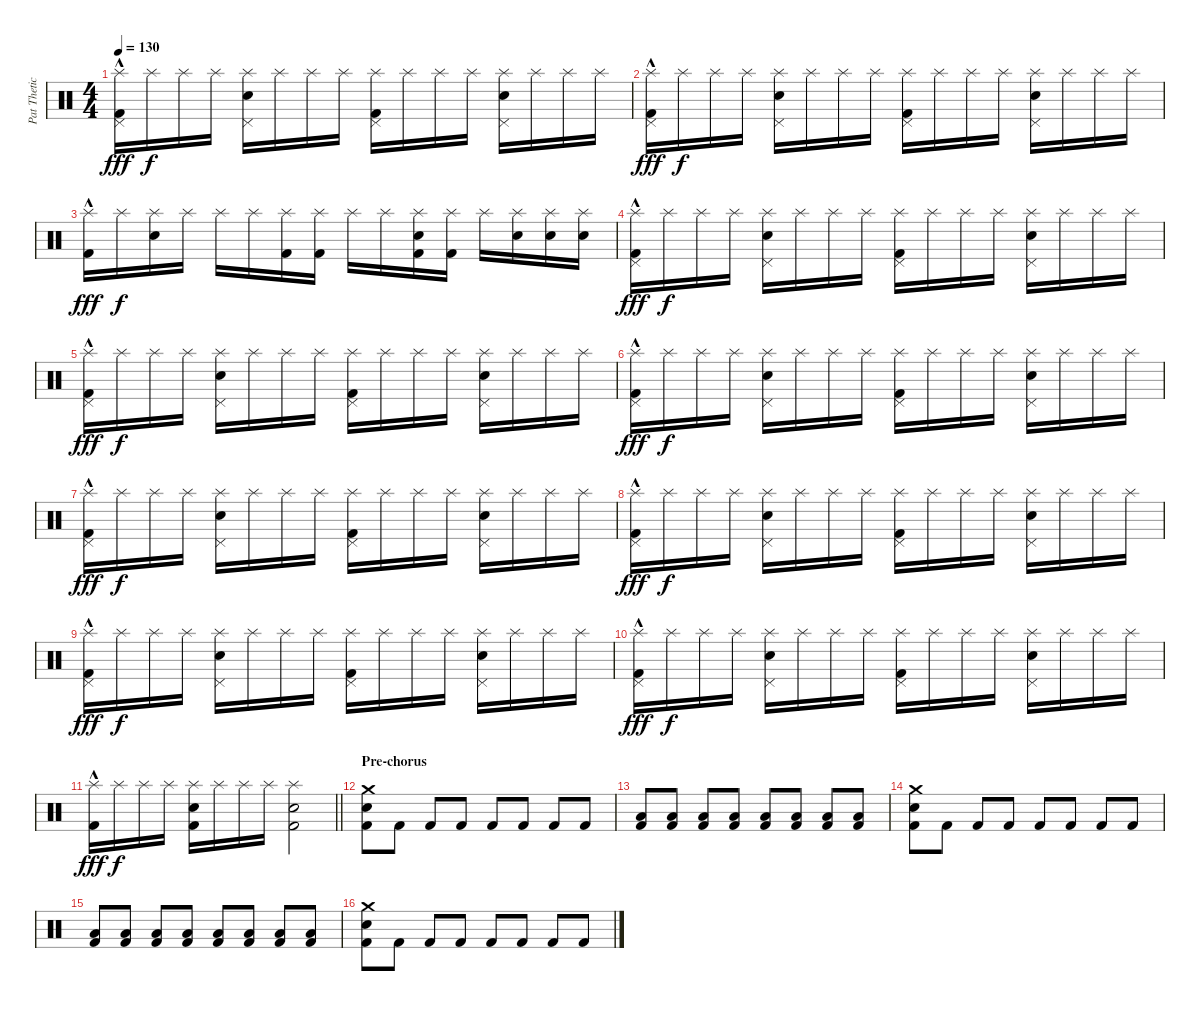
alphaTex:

\track ("Pat Thetic Drums" "Pat Thetic") {instrument percussion}
\staff {score}
\articulation defaults
\ts (4 4)
\tempo 130
\clef neutral
\ks c
("Splash (hit)" "Pedal Hi-Hat (hit)" "Kick (hit) 2"{hac}).16{dy fff} "Splash (hit)".16{dy f} "Splash (hit)".16 "Splash (hit)".16 ("Splash (hit)" "Pedal Hi-Hat (hit)" "Snare (hit) 2").16 "Splash (hit)".16 "Splash (hit)".16 "Splash (hit)".16 ("Splash (hit)" "Pedal Hi-Hat (hit)" "Kick (hit) 2").16 "Splash (hit)".16 "Splash (hit)".16 "Splash (hit)".16 ("Splash (hit)" "Pedal Hi-Hat (hit)" "Snare (hit) 2").16 "Splash (hit)".16 "Splash (hit)".16 "Splash (hit)".16 |
("Splash (hit)" "Pedal Hi-Hat (hit)" "Kick (hit) 2"{hac}).16{dy fff} "Splash (hit)".16{dy f} "Splash (hit)".16 "Splash (hit)".16 ("Splash (hit)" "Pedal Hi-Hat (hit)" "Snare (hit) 2").16 "Splash (hit)".16 "Splash (hit)".16 "Splash (hit)".16 ("Splash (hit)" "Pedal Hi-Hat (hit)" "Kick (hit) 2").16 "Splash (hit)".16 "Splash (hit)".16 "Splash (hit)".16 ("Splash (hit)" "Pedal Hi-Hat (hit)" "Snare (hit) 2").16 "Splash (hit)".16 "Splash (hit)".16 "Splash (hit)".16 |
("Splash (hit)" "Kick (hit) 2"{hac}).16{dy fff} "Splash (hit)".16{dy f} ("Splash (hit)" "Snare (hit) 2").16 "Splash (hit)".16 "Splash (hit)".16 "Splash (hit)".16 ("Splash (hit)" "Kick (hit) 2").16 ("Splash (hit)" "Kick (hit) 2").16 "Splash (hit)".16 "Splash (hit)".16 ("Splash (hit)" "Kick (hit) 2" "Snare (hit) 2").16 ("Splash (hit)" "Kick (hit) 2").16 "Splash (hit)".16 ("Splash (hit)" "Snare (hit) 2").16 ("Splash (hit)" "Snare (hit) 2").16 ("Splash (hit)" "Snare (hit) 2").16 |
("Splash (hit)" "Pedal Hi-Hat (hit)" "Kick (hit) 2"{hac}).16{dy fff} "Splash (hit)".16{dy f} "Splash (hit)".16 "Splash (hit)".16 ("Splash (hit)" "Pedal Hi-Hat (hit)" "Snare (hit) 2").16 "Splash (hit)".16 "Splash (hit)".16 "Splash (hit)".16 ("Splash (hit)" "Pedal Hi-Hat (hit)" "Kick (hit) 2").16 "Splash (hit)".16 "Splash (hit)".16 "Splash (hit)".16 ("Splash (hit)" "Pedal Hi-Hat (hit)" "Snare (hit) 2").16 "Splash (hit)".16 "Splash (hit)".16 "Splash (hit)".16 |
("Splash (hit)" "Pedal Hi-Hat (hit)" "Kick (hit) 2"{hac}).16{dy fff} "Splash (hit)".16{dy f} "Splash (hit)".16 "Splash (hit)".16 ("Splash (hit)" "Pedal Hi-Hat (hit)" "Snare (hit) 2").16 "Splash (hit)".16 "Splash (hit)".16 "Splash (hit)".16 ("Splash (hit)" "Pedal Hi-Hat (hit)" "Kick (hit) 2").16 "Splash (hit)".16 "Splash (hit)".16 "Splash (hit)".16 ("Splash (hit)" "Pedal Hi-Hat (hit)" "Snare (hit) 2").16 "Splash (hit)".16 "Splash (hit)".16 "Splash (hit)".16 |
("Splash (hit)" "Pedal Hi-Hat (hit)" "Kick (hit) 2"{hac}).16{dy fff} "Splash (hit)".16{dy f} "Splash (hit)".16 "Splash (hit)".16 ("Splash (hit)" "Pedal Hi-Hat (hit)" "Snare (hit) 2").16 "Splash (hit)".16 "Splash (hit)".16 "Splash (hit)".16 ("Splash (hit)" "Pedal Hi-Hat (hit)" "Kick (hit) 2").16 "Splash (hit)".16 "Splash (hit)".16 "Splash (hit)".16 ("Splash (hit)" "Pedal Hi-Hat (hit)" "Snare (hit) 2").16 "Splash (hit)".16 "Splash (hit)".16 "Splash (hit)".16 |
("Splash (hit)" "Pedal Hi-Hat (hit)" "Kick (hit) 2"{hac}).16{dy fff} "Splash (hit)".16{dy f} "Splash (hit)".16 "Splash (hit)".16 ("Splash (hit)" "Pedal Hi-Hat (hit)" "Snare (hit) 2").16 "Splash (hit)".16 "Splash (hit)".16 "Splash (hit)".16 ("Splash (hit)" "Pedal Hi-Hat (hit)" "Kick (hit) 2").16 "Splash (hit)".16 "Splash (hit)".16 "Splash (hit)".16 ("Splash (hit)" "Pedal Hi-Hat (hit)" "Snare (hit) 2").16 "Splash (hit)".16 "Splash (hit)".16 "Splash (hit)".16 |
("Splash (hit)" "Pedal Hi-Hat (hit)" "Kick (hit) 2"{hac}).16{dy fff} "Splash (hit)".16{dy f} "Splash (hit)".16 "Splash (hit)".16 ("Splash (hit)" "Pedal Hi-Hat (hit)" "Snare (hit) 2").16 "Splash (hit)".16 "Splash (hit)".16 "Splash (hit)".16 ("Splash (hit)" "Pedal Hi-Hat (hit)" "Kick (hit) 2").16 "Splash (hit)".16 "Splash (hit)".16 "Splash (hit)".16 ("Splash (hit)" "Pedal Hi-Hat (hit)" "Snare (hit) 2").16 "Splash (hit)".16 "Splash (hit)".16 "Splash (hit)".16 |
("Splash (hit)" "Pedal Hi-Hat (hit)" "Kick (hit) 2"{hac}).16{dy fff} "Splash (hit)".16{dy f} "Splash (hit)".16 "Splash (hit)".16 ("Splash (hit)" "Pedal Hi-Hat (hit)" "Snare (hit) 2").16 "Splash (hit)".16 "Splash (hit)".16 "Splash (hit)".16 ("Splash (hit)" "Pedal Hi-Hat (hit)" "Kick (hit) 2").16 "Splash (hit)".16 "Splash (hit)".16 "Splash (hit)".16 ("Splash (hit)" "Pedal Hi-Hat (hit)" "Snare (hit) 2").16 "Splash (hit)".16 "Splash (hit)".16 "Splash (hit)".16 |
("Splash (hit)" "Pedal Hi-Hat (hit)" "Kick (hit) 2"{hac}).16{dy fff} "Splash (hit)".16{dy f} "Splash (hit)".16 "Splash (hit)".16 ("Splash (hit)" "Pedal Hi-Hat (hit)" "Snare (hit) 2").16 "Splash (hit)".16 "Splash (hit)".16 "Splash (hit)".16 ("Splash (hit)" "Pedal Hi-Hat (hit)" "Kick (hit) 2").16 "Splash (hit)".16 "Splash (hit)".16 "Splash (hit)".16 ("Splash (hit)" "Pedal Hi-Hat (hit)" "Snare (hit) 2").16 "Splash (hit)".16 "Splash (hit)".16 "Splash (hit)".16 |
\barLineRight lightlight
("Splash (hit)" "Kick (hit) 2"{hac}).16{dy fff} "Splash (hit)".16{dy f} "Splash (hit)".16 "Splash (hit)".16 ("Splash (hit)" "Kick (hit) 2" "Snare (hit) 2").16 "Splash (hit)".16 "Splash (hit)".16 "Splash (hit)".16 ("Splash (hit)" "Kick (hit) 2" "Snare (hit) 2").2 |
\section ("" "Pre-chorus")
("Kick (hit) 2" "Snare (hit) 2" "Crash medium (hit)").8 "Kick (hit) 2".8{volume 11} "Kick (hit) 2".8{volume 16} "Kick (hit) 2".8 "Kick (hit) 2".8 "Kick (hit) 2".8 "Kick (hit) 2".8 "Kick (hit) 2".8 |
("Kick (hit) 2" "Low Floor Tom (hit)").8 ("Kick (hit) 2" "Low Floor Tom (hit)").8 ("Kick (hit) 2" "Low Floor Tom (hit)").8 ("Kick (hit) 2" "Low Floor Tom (hit)").8 ("Kick (hit) 2" "Low Floor Tom (hit)").8 ("Kick (hit) 2" "Low Floor Tom (hit)").8 ("Kick (hit) 2" "Low Floor Tom (hit)").8 ("Kick (hit) 2" "Low Floor Tom (hit)").8 |
("Kick (hit) 2" "Snare (hit) 2" "Crash medium (hit)").8 "Kick (hit) 2".8{volume 11} "Kick (hit) 2".8{volume 16} "Kick (hit) 2".8 "Kick (hit) 2".8 "Kick (hit) 2".8 "Kick (hit) 2".8 "Kick (hit) 2".8 |
("Kick (hit) 2" "Low Floor Tom (hit)").8 ("Kick (hit) 2" "Low Floor Tom (hit)").8 ("Kick (hit) 2" "Low Floor Tom (hit)").8 ("Kick (hit) 2" "Low Floor Tom (hit)").8 ("Kick (hit) 2" "Low Floor Tom (hit)").8 ("Kick (hit) 2" "Low Floor Tom (hit)").8 ("Kick (hit) 2" "Low Floor Tom (hit)").8 ("Kick (hit) 2" "Low Floor Tom (hit)").8 |
("Kick (hit) 2" "Snare (hit) 2" "Crash medium (hit)").8 "Kick (hit) 2".8{volume 11} "Kick (hit) 2".8{volume 16} "Kick (hit) 2".8 "Kick (hit) 2".8 "Kick (hit) 2".8 "Kick (hit) 2".8 "Kick (hit) 2".8
